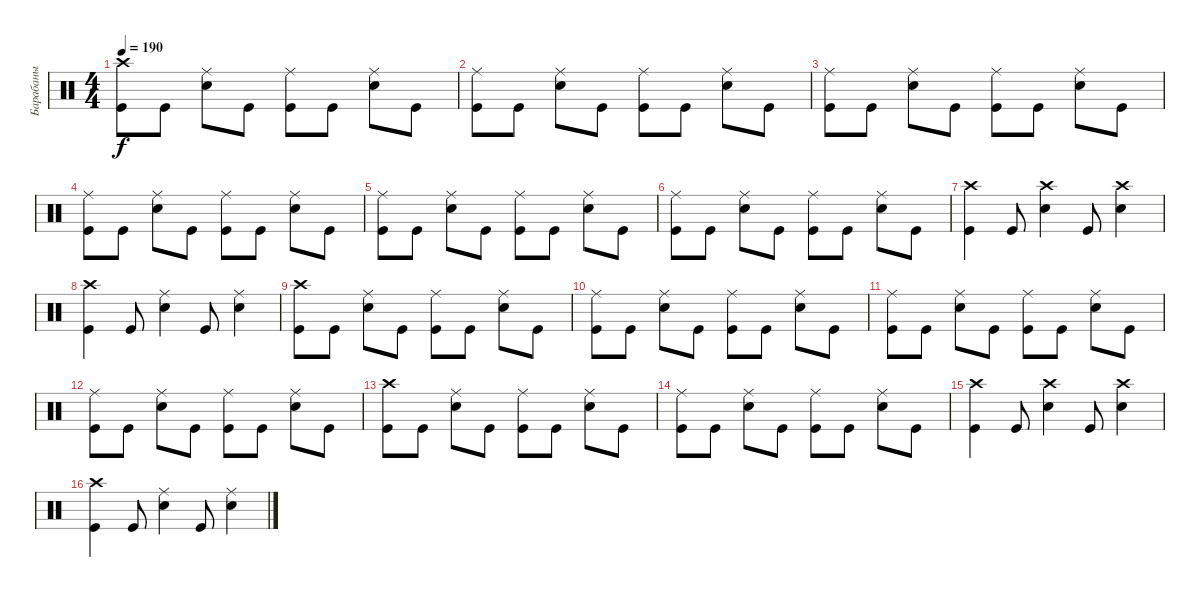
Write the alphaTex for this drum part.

\track ("Барабаны" "Барабаны") {instrument percussion}
\staff {score}
\articulation defaults
\ts (4 4)
\tempo 190
\clef neutral
\ks c
("Kick (hit)" "Crash high (hit)").8{dy f} "Kick (hit)".8 ("Snare (hit) 2" "Ride (middle)").8 "Kick (hit)".8 ("Kick (hit)" "Ride (middle)").8 "Kick (hit)".8 ("Snare (hit) 2" "Ride (middle)").8 "Kick (hit)".8 |
("Kick (hit)" "Ride (middle)").8 "Kick (hit)".8 ("Snare (hit) 2" "Ride (middle)").8 "Kick (hit)".8 ("Kick (hit)" "Ride (middle)").8 "Kick (hit)".8 ("Snare (hit) 2" "Ride (middle)").8 "Kick (hit)".8 |
("Kick (hit)" "Ride (middle)").8 "Kick (hit)".8 ("Snare (hit) 2" "Ride (middle)").8 "Kick (hit)".8 ("Kick (hit)" "Ride (middle)").8 "Kick (hit)".8 ("Snare (hit) 2" "Ride (middle)").8 "Kick (hit)".8 |
("Kick (hit)" "Ride (middle)").8 "Kick (hit)".8 ("Snare (hit) 2" "Ride (middle)").8 "Kick (hit)".8 ("Kick (hit)" "Ride (middle)").8 "Kick (hit)".8 ("Snare (hit) 2" "Ride (middle)").8 "Kick (hit)".8 |
("Kick (hit)" "Ride (middle)").8 "Kick (hit)".8 ("Snare (hit) 2" "Ride (middle)").8 "Kick (hit)".8 ("Kick (hit)" "Ride (middle)").8 "Kick (hit)".8 ("Snare (hit) 2" "Ride (middle)").8 "Kick (hit)".8 |
("Kick (hit)" "Ride (middle)").8 "Kick (hit)".8 ("Snare (hit) 2" "Ride (middle)").8 "Kick (hit)".8 ("Kick (hit)" "Ride (middle)").8 "Kick (hit)".8 ("Snare (hit) 2" "Ride (middle)").8 "Kick (hit)".8 |
("Kick (hit)" "Crash high (hit)").4 "Kick (hit)".8 ("Snare (hit) 2" "Crash high (hit)").4 "Kick (hit)".8 ("Snare (hit) 2" "Crash high (hit)").4 |
("Kick (hit)" "Crash high (hit)").4 "Kick (hit)".8 ("Snare (hit) 2" "Ride (middle)").4 "Kick (hit)".8 ("Snare (hit) 2" "Ride (middle)").4 |
("Kick (hit)" "Crash high (hit)").8 "Kick (hit)".8 ("Snare (hit) 2" "Ride (middle)").8 "Kick (hit)".8 ("Kick (hit)" "Ride (middle)").8 "Kick (hit)".8 ("Snare (hit) 2" "Ride (middle)").8 "Kick (hit)".8 |
("Kick (hit)" "Ride (middle)").8 "Kick (hit)".8 ("Snare (hit) 2" "Ride (middle)").8 "Kick (hit)".8 ("Kick (hit)" "Ride (middle)").8 "Kick (hit)".8 ("Snare (hit) 2" "Ride (middle)").8 "Kick (hit)".8 |
("Kick (hit)" "Ride (middle)").8 "Kick (hit)".8 ("Snare (hit) 2" "Ride (middle)").8 "Kick (hit)".8 ("Kick (hit)" "Ride (middle)").8 "Kick (hit)".8 ("Snare (hit) 2" "Ride (middle)").8 "Kick (hit)".8 |
("Kick (hit)" "Ride (middle)").8 "Kick (hit)".8 ("Snare (hit) 2" "Ride (middle)").8 "Kick (hit)".8 ("Kick (hit)" "Ride (middle)").8 "Kick (hit)".8 ("Snare (hit) 2" "Ride (middle)").8 "Kick (hit)".8 |
("Kick (hit)" "Crash high (hit)").8 "Kick (hit)".8 ("Snare (hit) 2" "Ride (middle)").8 "Kick (hit)".8 ("Kick (hit)" "Ride (middle)").8 "Kick (hit)".8 ("Snare (hit) 2" "Ride (middle)").8 "Kick (hit)".8 |
("Kick (hit)" "Ride (middle)").8 "Kick (hit)".8 ("Snare (hit) 2" "Ride (middle)").8 "Kick (hit)".8 ("Kick (hit)" "Ride (middle)").8 "Kick (hit)".8 ("Snare (hit) 2" "Ride (middle)").8 "Kick (hit)".8 |
("Kick (hit)" "Crash high (hit)").4 "Kick (hit)".8 ("Snare (hit) 2" "Crash high (hit)").4 "Kick (hit)".8 ("Snare (hit) 2" "Crash high (hit)").4 |
("Kick (hit)" "Crash high (hit)").4 "Kick (hit)".8 ("Snare (hit) 2" "Ride (middle)").4 "Kick (hit)".8 ("Snare (hit) 2" "Ride (middle)").4
